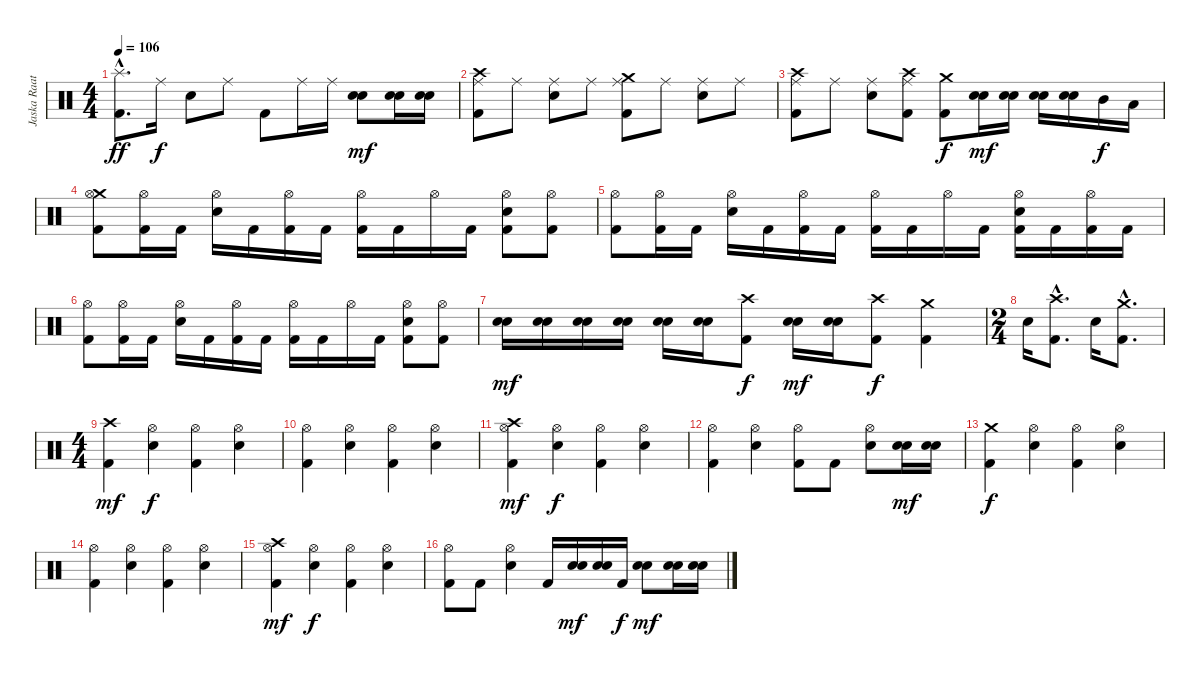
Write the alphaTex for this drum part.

\track ("Jaska Raatikainen" "Jaska Raat") {instrument percussion}
\staff {score}
\articulation defaults
\ts (4 4)
\tempo 106
\clef neutral
\ks c
("Kick (hit) 2"{hac} "Splash (hit)"{hac}).8{d dy ff} "Ride (middle)".16{dy f} "Snare (hit) 2".8 "Ride (middle)".8 "Kick (hit) 2".8 "Ride (middle)".16 "Ride (middle)".16 ("Electric Snare (hit)" "Snare (hit) 2").8{dy mf} ("Electric Snare (hit)" "Snare (hit) 2").16 ("Electric Snare (hit)" "Snare (hit) 2").16 |
("Kick (hit) 2" "Crash high (hit)" "Ride (middle)").8 "Ride (middle)".8 ("Ride (middle)" "Snare (hit) 2").8 "Ride (middle)".8 ("Kick (hit) 2" "Crash medium (hit)" "Ride (middle)").8 "Ride (middle)".8 ("Ride (middle)" "Snare (hit) 2").8 "Ride (middle)".8 |
("Kick (hit) 2" "Crash high (hit)" "Ride (middle)").8 "Ride (middle)".8 ("Ride (middle)" "Snare (hit) 2").8 ("Kick (hit) 2" "Crash high (hit)" "Ride (middle)").8 ("Kick (hit) 2" "Crash medium (hit)").8{dy f} ("Electric Snare (hit)" "Snare (hit) 2").16{dy mf} ("Electric Snare (hit)" "Snare (hit) 2").16 ("Electric Snare (hit)" "Snare (hit) 2").16 ("Electric Snare (hit)" "Snare (hit) 2").16 "Mid Tom (hit)".16{dy f} "Low Tom (hit)".16 |
("Kick (hit) 2" "Crash medium (hit)" "Hi-Hat (open)").8 ("Kick (hit) 2" "Hi-Hat (open)").16 "Kick (hit) 2".16 ("Hi-Hat (open)" "Snare (hit) 2").16 "Kick (hit) 2".16 ("Kick (hit) 2" "Hi-Hat (open)").16 "Kick (hit) 2".16 ("Kick (hit) 2" "Hi-Hat (open)").16 "Kick (hit) 2".16 "Hi-Hat (open)".16 "Kick (hit) 2".16 ("Kick (hit) 2" "Hi-Hat (open)" "Snare (hit) 2").8 ("Kick (hit) 2" "Hi-Hat (open)").8 |
("Kick (hit) 2" "Hi-Hat (open)").8 ("Kick (hit) 2" "Hi-Hat (open)").16 "Kick (hit) 2".16 ("Hi-Hat (open)" "Snare (hit) 2").16 "Kick (hit) 2".16 ("Kick (hit) 2" "Hi-Hat (open)").16 "Kick (hit) 2".16 ("Kick (hit) 2" "Hi-Hat (open)").16 "Kick (hit) 2".16 "Hi-Hat (open)".16 "Kick (hit) 2".16 ("Kick (hit) 2" "Hi-Hat (open)" "Snare (hit) 2").16 "Kick (hit) 2".16 ("Kick (hit) 2" "Hi-Hat (open)").16 "Kick (hit) 2".16 |
("Kick (hit) 2" "Hi-Hat (open)").8 ("Kick (hit) 2" "Hi-Hat (open)").16 "Kick (hit) 2".16 ("Hi-Hat (open)" "Snare (hit) 2").16 "Kick (hit) 2".16 ("Kick (hit) 2" "Hi-Hat (open)").16 "Kick (hit) 2".16 ("Kick (hit) 2" "Hi-Hat (open)").16 "Kick (hit) 2".16 "Hi-Hat (open)".16 "Kick (hit) 2".16 ("Kick (hit) 2" "Hi-Hat (open)" "Snare (hit) 2").8 ("Kick (hit) 2" "Hi-Hat (open)").8 |
("Electric Snare (hit)" "Snare (hit) 2").16{dy mf} ("Electric Snare (hit)" "Snare (hit) 2").16 ("Electric Snare (hit)" "Snare (hit) 2").16 ("Electric Snare (hit)" "Snare (hit) 2").16 ("Electric Snare (hit)" "Snare (hit) 2").16 ("Electric Snare (hit)" "Snare (hit) 2").16 ("Kick (hit) 2" "Crash high (hit)").8{dy f} ("Electric Snare (hit)" "Snare (hit) 2").16{dy mf} ("Electric Snare (hit)" "Snare (hit) 2").16 ("Kick (hit) 2" "Crash high (hit)").8{dy f} ("Kick (hit) 2" "Crash medium (hit)").4 |
\ts (2 4)
"Snare (hit) 2".16 ("Kick (hit) 2"{hac} "Crash high (hit)"{hac}).8{d} "Snare (hit) 2".16 ("Kick (hit) 2"{hac} "Crash medium (hit)"{hac}).8{d} |
\ts (4 4)
("Kick (hit) 2" "Crash high (hit)").4{dy mf} ("Hi-Hat (open)" "Snare (hit) 2").4{dy f} ("Kick (hit) 2" "Hi-Hat (open)").4 ("Hi-Hat (open)" "Snare (hit) 2").4 |
("Kick (hit) 2" "Hi-Hat (open)").4 ("Hi-Hat (open)" "Snare (hit) 2").4 ("Kick (hit) 2" "Hi-Hat (open)").4 ("Hi-Hat (open)" "Snare (hit) 2").4 |
("Kick (hit) 2" "Crash high (hit)" "Hi-Hat (open)").4{dy mf} ("Hi-Hat (open)" "Snare (hit) 2").4{dy f} ("Kick (hit) 2" "Hi-Hat (open)").4 ("Hi-Hat (open)" "Snare (hit) 2").4 |
("Kick (hit) 2" "Hi-Hat (open)").4 ("Hi-Hat (open)" "Snare (hit) 2").4 ("Kick (hit) 2" "Hi-Hat (open)").8 "Kick (hit) 2".8 ("Hi-Hat (open)" "Snare (hit) 2").8 ("Electric Snare (hit)" "Snare (hit) 2").16{dy mf} ("Electric Snare (hit)" "Snare (hit) 2").16 |
("Kick (hit) 2" "Crash medium (hit)").4{dy f} ("Hi-Hat (open)" "Snare (hit) 2").4 ("Kick (hit) 2" "Hi-Hat (open)").4 ("Hi-Hat (open)" "Snare (hit) 2").4 |
("Kick (hit) 2" "Hi-Hat (open)").4 ("Hi-Hat (open)" "Snare (hit) 2").4 ("Kick (hit) 2" "Hi-Hat (open)").4 ("Hi-Hat (open)" "Snare (hit) 2").4 |
("Kick (hit) 2" "Crash high (hit)" "Hi-Hat (open)").4{dy mf} ("Hi-Hat (open)" "Snare (hit) 2").4{dy f} ("Kick (hit) 2" "Hi-Hat (open)").4 ("Hi-Hat (open)" "Snare (hit) 2").4 |
("Kick (hit) 2" "Hi-Hat (open)").8 "Kick (hit) 2".8 ("Hi-Hat (open)" "Snare (hit) 2").4 "Kick (hit) 2".16 ("Electric Snare (hit)" "Snare (hit) 2").16{dy mf} ("Electric Snare (hit)" "Snare (hit) 2").16 "Kick (hit) 2".16{dy f} ("Electric Snare (hit)" "Snare (hit) 2").8{dy mf} ("Electric Snare (hit)" "Snare (hit) 2").16 ("Electric Snare (hit)" "Snare (hit) 2").16
